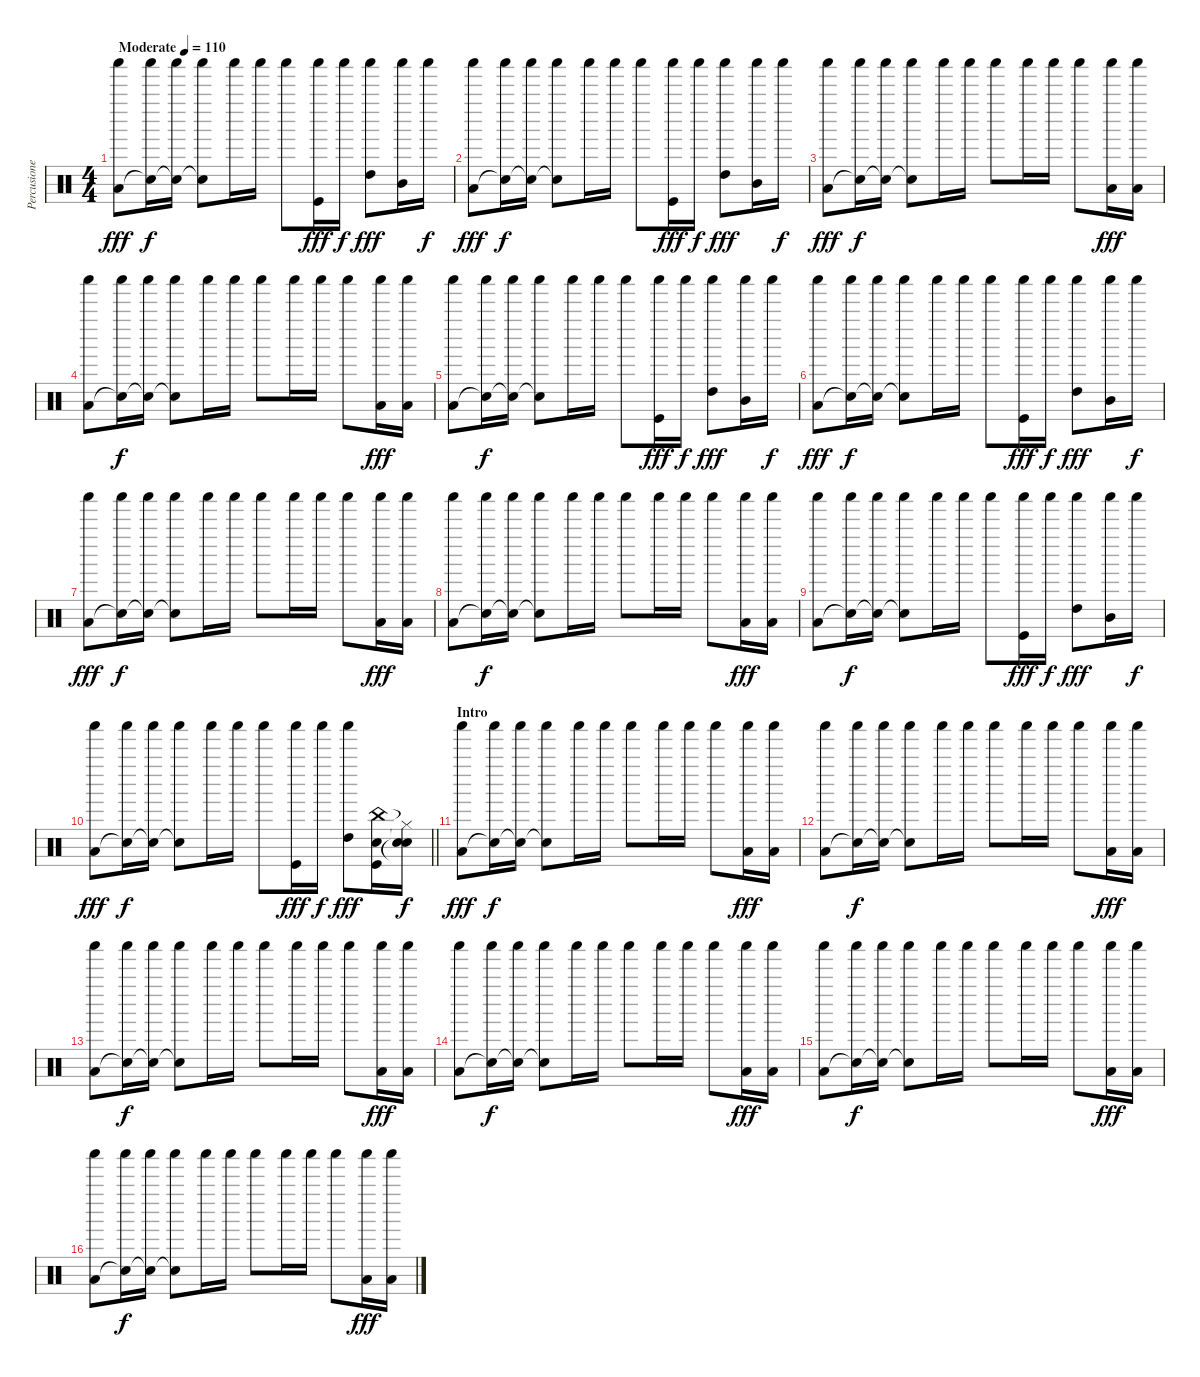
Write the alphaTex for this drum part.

\track ("Percusiones" "Percusione") {instrument percussion}
\staff {score}
\articulation defaults
\ts (4 4)
\tempo (110 "Moderate")
\clef neutral
\ks c
("Shaker (hit)" "Low Tom (hit)").8{dy fff} ("Shaker (hit)" "Snare (hit)"{t}).16{dy f} ("Shaker (hit)" "Snare (hit)"{t}).16 ("Shaker (hit)" "Snare (hit)"{t}).8 "Shaker (hit)".16 "Shaker (hit)".16 "Shaker (hit)".8 ("Shaker (hit)" "Kick (hit)").16{dy fff} "Shaker (hit)".16{dy f} ("Shaker (hit)" "High Tom (hit)").8{dy fff} ("Shaker (hit)" "Mid Tom (hit)").16 "Shaker (hit)".16{dy f} |
("Shaker (hit)" "Low Tom (hit)").8{dy fff} ("Shaker (hit)" "Snare (hit)"{t}).16{dy f} ("Shaker (hit)" "Snare (hit)"{t}).16 ("Shaker (hit)" "Snare (hit)"{t}).8 "Shaker (hit)".16 "Shaker (hit)".16 "Shaker (hit)".8 ("Shaker (hit)" "Kick (hit)").16{dy fff} "Shaker (hit)".16{dy f} ("Shaker (hit)" "High Tom (hit)").8{dy fff} ("Shaker (hit)" "Mid Tom (hit)").16 "Shaker (hit)".16{dy f} |
("Shaker (hit)" "Low Tom (hit)").8{dy fff} ("Shaker (hit)" "Snare (hit)"{t}).16{dy f} ("Shaker (hit)" "Snare (hit)"{t}).16 ("Shaker (hit)" "Snare (hit)"{t}).8 "Shaker (hit)".16 "Shaker (hit)".16 "Shaker (hit)".8 "Shaker (hit)".16 "Shaker (hit)".16 "Shaker (hit)".8 ("Shaker (hit)" "Low Tom (hit)").16{dy fff} ("Shaker (hit)" "Low Tom (hit)").16 |
("Shaker (hit)" "Low Tom (hit)").8 ("Shaker (hit)" "Snare (hit)"{t}).16{dy f} ("Shaker (hit)" "Snare (hit)"{t}).16 ("Shaker (hit)" "Snare (hit)"{t}).8 "Shaker (hit)".16 "Shaker (hit)".16 "Shaker (hit)".8 "Shaker (hit)".16 "Shaker (hit)".16 "Shaker (hit)".8 ("Shaker (hit)" "Low Tom (hit)").16{dy fff} ("Shaker (hit)" "Low Tom (hit)").16 |
("Shaker (hit)" "Low Tom (hit)").8 ("Shaker (hit)" "Snare (hit)"{t}).16{dy f} ("Shaker (hit)" "Snare (hit)"{t}).16 ("Shaker (hit)" "Snare (hit)"{t}).8 "Shaker (hit)".16 "Shaker (hit)".16 "Shaker (hit)".8 ("Shaker (hit)" "Kick (hit)").16{dy fff} "Shaker (hit)".16{dy f} ("Shaker (hit)" "High Tom (hit)").8{dy fff} ("Shaker (hit)" "Mid Tom (hit)").16 "Shaker (hit)".16{dy f} |
("Shaker (hit)" "Low Tom (hit)").8{dy fff} ("Shaker (hit)" "Snare (hit)"{t}).16{dy f} ("Shaker (hit)" "Snare (hit)"{t}).16 ("Shaker (hit)" "Snare (hit)"{t}).8 "Shaker (hit)".16 "Shaker (hit)".16 "Shaker (hit)".8 ("Shaker (hit)" "Kick (hit)").16{dy fff} "Shaker (hit)".16{dy f} ("Shaker (hit)" "High Tom (hit)").8{dy fff} ("Shaker (hit)" "Mid Tom (hit)").16 "Shaker (hit)".16{dy f} |
("Shaker (hit)" "Low Tom (hit)").8{dy fff} ("Shaker (hit)" "Snare (hit)"{t}).16{dy f} ("Shaker (hit)" "Snare (hit)"{t}).16 ("Shaker (hit)" "Snare (hit)"{t}).8 "Shaker (hit)".16 "Shaker (hit)".16 "Shaker (hit)".8 "Shaker (hit)".16 "Shaker (hit)".16 "Shaker (hit)".8 ("Shaker (hit)" "Low Tom (hit)").16{dy fff} ("Shaker (hit)" "Low Tom (hit)").16 |
("Shaker (hit)" "Low Tom (hit)").8 ("Shaker (hit)" "Snare (hit)"{t}).16{dy f} ("Shaker (hit)" "Snare (hit)"{t}).16 ("Shaker (hit)" "Snare (hit)"{t}).8 "Shaker (hit)".16 "Shaker (hit)".16 "Shaker (hit)".8 "Shaker (hit)".16 "Shaker (hit)".16 "Shaker (hit)".8 ("Shaker (hit)" "Low Tom (hit)").16{dy fff} ("Shaker (hit)" "Low Tom (hit)").16 |
("Shaker (hit)" "Low Tom (hit)").8 ("Shaker (hit)" "Snare (hit)"{t}).16{dy f} ("Shaker (hit)" "Snare (hit)"{t}).16 ("Shaker (hit)" "Snare (hit)"{t}).8 "Shaker (hit)".16 "Shaker (hit)".16 "Shaker (hit)".8 ("Shaker (hit)" "Kick (hit)").16{dy fff} "Shaker (hit)".16{dy f} ("Shaker (hit)" "High Tom (hit)").8{dy fff} ("Shaker (hit)" "Mid Tom (hit)").16 "Shaker (hit)".16{dy f} |
\barLineRight lightlight
("Shaker (hit)" "Low Tom (hit)").8{dy fff} ("Shaker (hit)" "Snare (hit)"{t}).16{dy f} ("Shaker (hit)" "Snare (hit)"{t}).16 ("Shaker (hit)" "Snare (hit)"{t}).8 "Shaker (hit)".16 "Shaker (hit)".16 "Shaker (hit)".8 ("Shaker (hit)" "Kick (hit)").16{dy fff} "Shaker (hit)".16{dy f} ("Shaker (hit)" "High Tom (hit)").8{dy fff} ("China (hit)" "Electric Snare (hit)" "Kick (hit)").16 ("Hi-Hat (closed)"{t} "Snare (hit)"{t} "Snare (hit)"{t}).16{dy f} |
\section ("" "Intro")
("Shaker (hit)" "Low Tom (hit)").8{dy fff} ("Shaker (hit)" "Snare (hit)"{t}).16{dy f} ("Shaker (hit)" "Snare (hit)"{t}).16 ("Shaker (hit)" "Snare (hit)"{t}).8 "Shaker (hit)".16 "Shaker (hit)".16 "Shaker (hit)".8 "Shaker (hit)".16 "Shaker (hit)".16 "Shaker (hit)".8 ("Shaker (hit)" "Low Tom (hit)").16{dy fff} ("Shaker (hit)" "Low Tom (hit)").16 |
("Shaker (hit)" "Low Tom (hit)").8 ("Shaker (hit)" "Snare (hit)"{t}).16{dy f} ("Shaker (hit)" "Snare (hit)"{t}).16 ("Shaker (hit)" "Snare (hit)"{t}).8 "Shaker (hit)".16 "Shaker (hit)".16 "Shaker (hit)".8 "Shaker (hit)".16 "Shaker (hit)".16 "Shaker (hit)".8 ("Shaker (hit)" "Low Tom (hit)").16{dy fff} ("Shaker (hit)" "Low Tom (hit)").16 |
("Shaker (hit)" "Low Tom (hit)").8 ("Shaker (hit)" "Snare (hit)"{t}).16{dy f} ("Shaker (hit)" "Snare (hit)"{t}).16 ("Shaker (hit)" "Snare (hit)"{t}).8 "Shaker (hit)".16 "Shaker (hit)".16 "Shaker (hit)".8 "Shaker (hit)".16 "Shaker (hit)".16 "Shaker (hit)".8 ("Shaker (hit)" "Low Tom (hit)").16{dy fff} ("Shaker (hit)" "Low Tom (hit)").16 |
("Shaker (hit)" "Low Tom (hit)").8 ("Shaker (hit)" "Snare (hit)"{t}).16{dy f} ("Shaker (hit)" "Snare (hit)"{t}).16 ("Shaker (hit)" "Snare (hit)"{t}).8 "Shaker (hit)".16 "Shaker (hit)".16 "Shaker (hit)".8 "Shaker (hit)".16 "Shaker (hit)".16 "Shaker (hit)".8 ("Shaker (hit)" "Low Tom (hit)").16{dy fff} ("Shaker (hit)" "Low Tom (hit)").16 |
("Shaker (hit)" "Low Tom (hit)").8 ("Shaker (hit)" "Snare (hit)"{t}).16{dy f} ("Shaker (hit)" "Snare (hit)"{t}).16 ("Shaker (hit)" "Snare (hit)"{t}).8 "Shaker (hit)".16 "Shaker (hit)".16 "Shaker (hit)".8 "Shaker (hit)".16 "Shaker (hit)".16 "Shaker (hit)".8 ("Shaker (hit)" "Low Tom (hit)").16{dy fff} ("Shaker (hit)" "Low Tom (hit)").16 |
("Shaker (hit)" "Low Tom (hit)").8 ("Shaker (hit)" "Snare (hit)"{t}).16{dy f} ("Shaker (hit)" "Snare (hit)"{t}).16 ("Shaker (hit)" "Snare (hit)"{t}).8 "Shaker (hit)".16 "Shaker (hit)".16 "Shaker (hit)".8 "Shaker (hit)".16 "Shaker (hit)".16 "Shaker (hit)".8 ("Shaker (hit)" "Low Tom (hit)").16{dy fff} ("Shaker (hit)" "Low Tom (hit)").16
